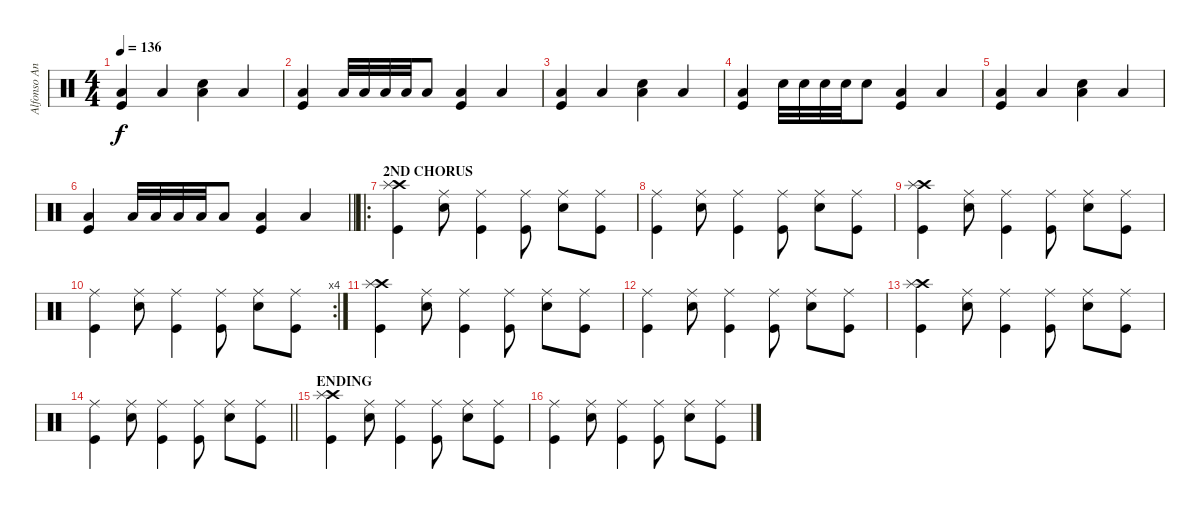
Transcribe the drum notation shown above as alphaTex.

\track ("Alfonso Andre" "Alfonso An") {instrument percussion}
\staff {score}
\articulation defaults
\ts (4 4)
\tempo 136
\clef neutral
\ks c
("Kick (hit)" "Low Floor Tom (hit)").4{dy f} "Low Floor Tom (hit)".4 ("Snare (hit) 2" "Low Floor Tom (hit)").4 "Low Floor Tom (hit)".4 |
("Kick (hit)" "Low Floor Tom (hit)").4 "Low Tom (hit)".32 "Low Tom (hit)".32 "Low Tom (hit)".32 "Low Tom (hit)".32 "Low Tom (hit)".8 ("Kick (hit)" "Low Floor Tom (hit)").4 "Low Floor Tom (hit)".4 |
("Kick (hit)" "Low Floor Tom (hit)").4 "Low Floor Tom (hit)".4 ("Snare (hit) 2" "Low Floor Tom (hit)").4 "Low Floor Tom (hit)".4 |
("Kick (hit)" "Low Floor Tom (hit)").4 "Snare (hit) 2".32 "Snare (hit) 2".32 "Snare (hit) 2".32 "Snare (hit) 2".32 "Snare (hit) 2".8 ("Kick (hit)" "Low Floor Tom (hit)").4 "Low Floor Tom (hit)".4 |
("Kick (hit)" "Low Floor Tom (hit)").4 "Low Floor Tom (hit)".4 ("Snare (hit) 2" "Low Floor Tom (hit)").4 "Low Floor Tom (hit)".4 |
\barLineRight lightlight
("Kick (hit)" "Low Floor Tom (hit)").4 "Low Tom (hit)".32 "Low Tom (hit)".32 "Low Tom (hit)".32 "Low Tom (hit)".32 "Low Tom (hit)".8 ("Kick (hit)" "Low Floor Tom (hit)").4 "Low Floor Tom (hit)".4 |
\ro
\section ("" "2ND CHORUS")
("Kick (hit)" "Crash high (hit)" "Splash (hit)").4 ("Snare (hit) 2" "Ride (middle)").8 ("Kick (hit)" "Ride (middle)").4 ("Kick (hit)" "Ride (middle)").8 ("Snare (hit) 2" "Ride (middle)").8 ("Kick (hit)" "Ride (middle)").8 |
("Kick (hit)" "Ride (middle)").4 ("Snare (hit) 2" "Ride (middle)").8 ("Kick (hit)" "Ride (middle)").4 ("Kick (hit)" "Ride (middle)").8 ("Snare (hit) 2" "Ride (middle)").8 ("Kick (hit)" "Ride (middle)").8 |
("Kick (hit)" "Crash high (hit)" "Splash (hit)").4 ("Snare (hit) 2" "Ride (middle)").8 ("Kick (hit)" "Ride (middle)").4 ("Kick (hit)" "Ride (middle)").8 ("Snare (hit) 2" "Ride (middle)").8 ("Kick (hit)" "Ride (middle)").8 |
\rc 4
("Kick (hit)" "Ride (middle)").4 ("Snare (hit) 2" "Ride (middle)").8 ("Kick (hit)" "Ride (middle)").4 ("Kick (hit)" "Ride (middle)").8 ("Snare (hit) 2" "Ride (middle)").8 ("Kick (hit)" "Ride (middle)").8 |
("Kick (hit)" "Crash high (hit)" "Splash (hit)").4 ("Snare (hit) 2" "Ride (middle)").8 ("Kick (hit)" "Ride (middle)").4 ("Kick (hit)" "Ride (middle)").8 ("Snare (hit) 2" "Ride (middle)").8 ("Kick (hit)" "Ride (middle)").8 |
("Kick (hit)" "Ride (middle)").4 ("Snare (hit) 2" "Ride (middle)").8 ("Kick (hit)" "Ride (middle)").4 ("Kick (hit)" "Ride (middle)").8 ("Snare (hit) 2" "Ride (middle)").8 ("Kick (hit)" "Ride (middle)").8 |
("Kick (hit)" "Crash high (hit)" "Splash (hit)").4 ("Snare (hit) 2" "Ride (middle)").8 ("Kick (hit)" "Ride (middle)").4 ("Kick (hit)" "Ride (middle)").8 ("Snare (hit) 2" "Ride (middle)").8 ("Kick (hit)" "Ride (middle)").8 |
\barLineRight lightlight
("Kick (hit)" "Ride (middle)").4 ("Snare (hit) 2" "Ride (middle)").8 ("Kick (hit)" "Ride (middle)").4 ("Kick (hit)" "Ride (middle)").8 ("Snare (hit) 2" "Ride (middle)").8 ("Kick (hit)" "Ride (middle)").8 |
\section ("" "ENDING")
("Kick (hit)" "Crash high (hit)" "Splash (hit)").4 ("Snare (hit) 2" "Ride (middle)").8 ("Kick (hit)" "Ride (middle)").4 ("Kick (hit)" "Ride (middle)").8 ("Snare (hit) 2" "Ride (middle)").8 ("Kick (hit)" "Ride (middle)").8 |
("Kick (hit)" "Ride (middle)").4 ("Snare (hit) 2" "Ride (middle)").8 ("Kick (hit)" "Ride (middle)").4 ("Kick (hit)" "Ride (middle)").8 ("Snare (hit) 2" "Ride (middle)").8 ("Kick (hit)" "Ride (middle)").8
